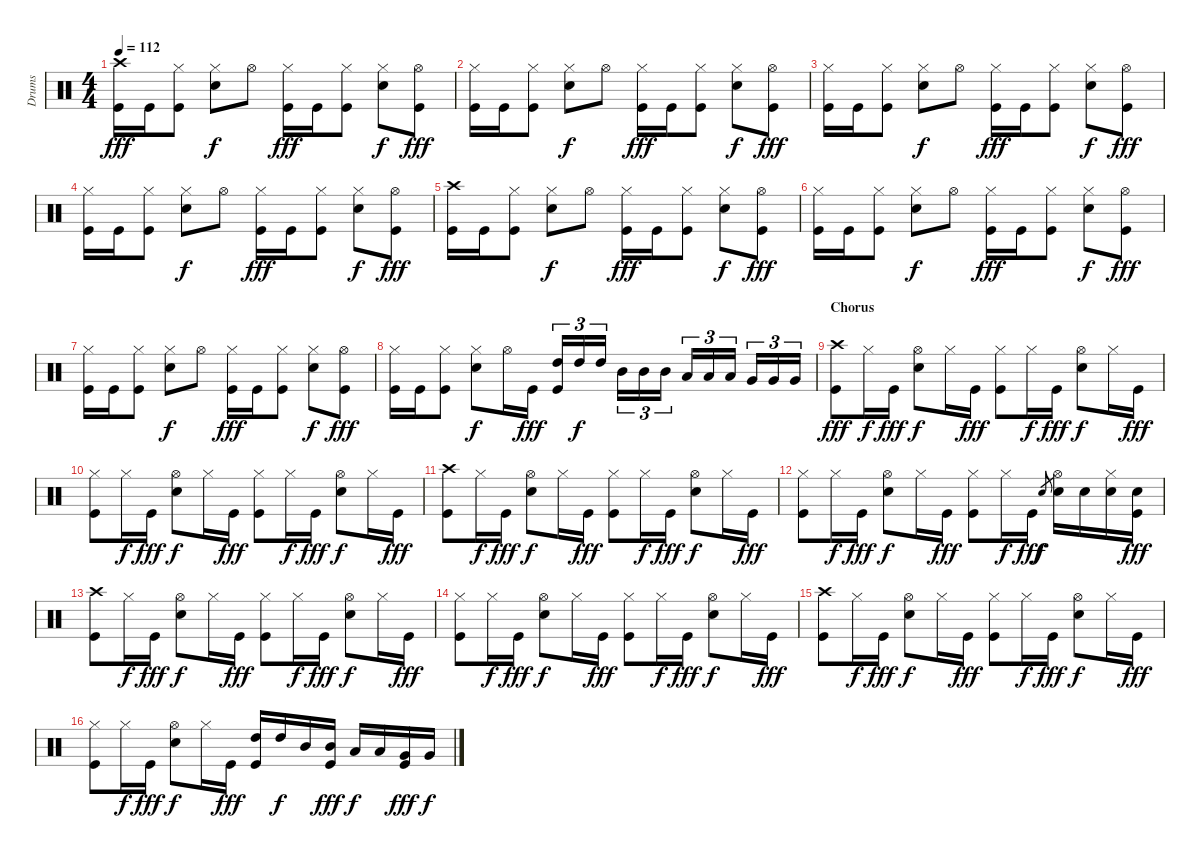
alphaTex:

\track ("Drums" "Drums") {instrument percussion}
\staff {score}
\articulation defaults
\ts (4 4)
\tempo 112
\clef neutral
\ks c
("Crash high (hit)" "Kick (hit)").16{dy fff} "Kick (hit)".16 ("Hi-Hat (closed)" "Kick (hit)").8 ("Hi-Hat (closed)" "Snare (hit) 2").8{dy f} "Hi-Hat (open)".8 ("Hi-Hat (closed)" "Kick (hit)").16{dy fff} "Kick (hit)".16 ("Hi-Hat (closed)" "Kick (hit)").8 ("Hi-Hat (closed)" "Snare (hit) 2").8{dy f} ("Hi-Hat (open)" "Kick (hit)").8{dy fff} |
("Hi-Hat (closed)" "Kick (hit)").16 "Kick (hit)".16 ("Hi-Hat (closed)" "Kick (hit)").8 ("Hi-Hat (closed)" "Snare (hit) 2").8{dy f} "Hi-Hat (open)".8 ("Hi-Hat (closed)" "Kick (hit)").16{dy fff} "Kick (hit)".16 ("Hi-Hat (closed)" "Kick (hit)").8 ("Hi-Hat (closed)" "Snare (hit) 2").8{dy f} ("Hi-Hat (open)" "Kick (hit)").8{dy fff} |
("Hi-Hat (closed)" "Kick (hit)").16 "Kick (hit)".16 ("Hi-Hat (closed)" "Kick (hit)").8 ("Hi-Hat (closed)" "Snare (hit) 2").8{dy f} "Hi-Hat (open)".8 ("Hi-Hat (closed)" "Kick (hit)").16{dy fff} "Kick (hit)".16 ("Hi-Hat (closed)" "Kick (hit)").8 ("Hi-Hat (closed)" "Snare (hit) 2").8{dy f} ("Hi-Hat (open)" "Kick (hit)").8{dy fff} |
("Hi-Hat (closed)" "Kick (hit)").16 "Kick (hit)".16 ("Hi-Hat (closed)" "Kick (hit)").8 ("Hi-Hat (closed)" "Snare (hit) 2").8{dy f} "Hi-Hat (open)".8 ("Hi-Hat (closed)" "Kick (hit)").16{dy fff} "Kick (hit)".16 ("Hi-Hat (closed)" "Kick (hit)").8 ("Hi-Hat (closed)" "Snare (hit) 2").8{dy f} ("Hi-Hat (open)" "Kick (hit)").8{dy fff} |
("Crash high (hit)" "Kick (hit)").16 "Kick (hit)".16 ("Hi-Hat (closed)" "Kick (hit)").8 ("Hi-Hat (closed)" "Snare (hit) 2").8{dy f} "Hi-Hat (open)".8 ("Hi-Hat (closed)" "Kick (hit)").16{dy fff} "Kick (hit)".16 ("Hi-Hat (closed)" "Kick (hit)").8 ("Hi-Hat (closed)" "Snare (hit) 2").8{dy f} ("Hi-Hat (open)" "Kick (hit)").8{dy fff} |
("Hi-Hat (closed)" "Kick (hit)").16 "Kick (hit)".16 ("Hi-Hat (closed)" "Kick (hit)").8 ("Hi-Hat (closed)" "Snare (hit) 2").8{dy f} "Hi-Hat (open)".8 ("Hi-Hat (closed)" "Kick (hit)").16{dy fff} "Kick (hit)".16 ("Hi-Hat (closed)" "Kick (hit)").8 ("Hi-Hat (closed)" "Snare (hit) 2").8{dy f} ("Hi-Hat (open)" "Kick (hit)").8{dy fff} |
("Hi-Hat (closed)" "Kick (hit)").16 "Kick (hit)".16 ("Hi-Hat (closed)" "Kick (hit)").8 ("Hi-Hat (closed)" "Snare (hit) 2").8{dy f} "Hi-Hat (open)".8 ("Hi-Hat (closed)" "Kick (hit)").16{dy fff} "Kick (hit)".16 ("Hi-Hat (closed)" "Kick (hit)").8 ("Hi-Hat (closed)" "Snare (hit) 2").8{dy f} ("Hi-Hat (open)" "Kick (hit)").8{dy fff} |
("Hi-Hat (closed)" "Kick (hit)").16 "Kick (hit)".16 ("Hi-Hat (closed)" "Kick (hit)").8 ("Hi-Hat (closed)" "Snare (hit) 2").8{dy f} "Hi-Hat (open)".16 "Kick (hit)".16{dy fff} ("High Tom (hit)" "Kick (hit)").16{tu (3 2)} "High Tom (hit)".16{tu (3 2) dy f} "High Tom (hit)".16{tu (3 2)} "Mid Tom (hit)".16{tu (3 2)} "Mid Tom (hit)".16{tu (3 2)} "Mid Tom (hit)".16{tu (3 2)} "Low Tom (hit)".16{tu (3 2)} "Low Tom (hit)".16{tu (3 2)} "Low Tom (hit)".16{tu (3 2)} "Very Low Tom (hit)".16{tu (3 2)} "Very Low Tom (hit)".16{tu (3 2)} "Very Low Tom (hit)".16{tu (3 2)} |
\section ("" "Chorus")
("Crash high (hit)" "Kick (hit)").8{dy fff} "Hi-Hat (closed)".16{dy f} "Kick (hit)".16{dy fff} ("Hi-Hat (open)" "Snare (hit) 2").8{dy f} "Hi-Hat (closed)".16 "Kick (hit)".16{dy fff} ("Hi-Hat (closed)" "Kick (hit)").8 "Hi-Hat (closed)".16{dy f} "Kick (hit)".16{dy fff} ("Hi-Hat (open)" "Snare (hit) 2").8{dy f} "Hi-Hat (closed)".16 "Kick (hit)".16{dy fff} |
("Hi-Hat (closed)" "Kick (hit)").8 "Hi-Hat (closed)".16{dy f} "Kick (hit)".16{dy fff} ("Hi-Hat (open)" "Snare (hit) 2").8{dy f} "Hi-Hat (closed)".16 "Kick (hit)".16{dy fff} ("Hi-Hat (closed)" "Kick (hit)").8 "Hi-Hat (closed)".16{dy f} "Kick (hit)".16{dy fff} ("Hi-Hat (open)" "Snare (hit) 2").8{dy f} "Hi-Hat (closed)".16 "Kick (hit)".16{dy fff} |
("Crash high (hit)" "Kick (hit)").8 "Hi-Hat (closed)".16{dy f} "Kick (hit)".16{dy fff} ("Hi-Hat (open)" "Snare (hit) 2").8{dy f} "Hi-Hat (closed)".16 "Kick (hit)".16{dy fff} ("Hi-Hat (closed)" "Kick (hit)").8 "Hi-Hat (closed)".16{dy f} "Kick (hit)".16{dy fff} ("Hi-Hat (open)" "Snare (hit) 2").8{dy f} "Hi-Hat (closed)".16 "Kick (hit)".16{dy fff} |
("Hi-Hat (closed)" "Kick (hit)").8 "Hi-Hat (closed)".16{dy f} "Kick (hit)".16{dy fff} ("Hi-Hat (open)" "Snare (hit) 2").8{dy f} "Hi-Hat (closed)".16 "Kick (hit)".16{dy fff} ("Hi-Hat (closed)" "Kick (hit)").8 "Hi-Hat (closed)".16{dy f} "Kick (hit)".16{dy fff} "Snare (hit) 2".8{gr dy f} ("Hi-Hat (open)" "Snare (hit) 2").16 "Snare (hit) 2".16 ("Hi-Hat (closed)" "Snare (hit) 2").16 ("Snare (hit) 2" "Kick (hit)").16{dy fff} |
("Crash high (hit)" "Kick (hit)").8 "Hi-Hat (closed)".16{dy f} "Kick (hit)".16{dy fff} ("Hi-Hat (open)" "Snare (hit) 2").8{dy f} "Hi-Hat (closed)".16 "Kick (hit)".16{dy fff} ("Hi-Hat (closed)" "Kick (hit)").8 "Hi-Hat (closed)".16{dy f} "Kick (hit)".16{dy fff} ("Hi-Hat (open)" "Snare (hit) 2").8{dy f} "Hi-Hat (closed)".16 "Kick (hit)".16{dy fff} |
("Hi-Hat (closed)" "Kick (hit)").8 "Hi-Hat (closed)".16{dy f} "Kick (hit)".16{dy fff} ("Hi-Hat (open)" "Snare (hit) 2").8{dy f} "Hi-Hat (closed)".16 "Kick (hit)".16{dy fff} ("Hi-Hat (closed)" "Kick (hit)").8 "Hi-Hat (closed)".16{dy f} "Kick (hit)".16{dy fff} ("Hi-Hat (open)" "Snare (hit) 2").8{dy f} "Hi-Hat (closed)".16 "Kick (hit)".16{dy fff} |
("Crash high (hit)" "Kick (hit)").8 "Hi-Hat (closed)".16{dy f} "Kick (hit)".16{dy fff} ("Hi-Hat (open)" "Snare (hit) 2").8{dy f} "Hi-Hat (closed)".16 "Kick (hit)".16{dy fff} ("Hi-Hat (closed)" "Kick (hit)").8 "Hi-Hat (closed)".16{dy f} "Kick (hit)".16{dy fff} ("Hi-Hat (open)" "Snare (hit) 2").8{dy f} "Hi-Hat (closed)".16 "Kick (hit)".16{dy fff} |
("Hi-Hat (closed)" "Kick (hit)").8 "Hi-Hat (closed)".16{dy f} "Kick (hit)".16{dy fff} ("Hi-Hat (open)" "Snare (hit) 2").8{dy f} "Hi-Hat (closed)".16 "Kick (hit)".16{dy fff} ("High Tom (hit)" "Kick (hit)").16 "High Tom (hit)".16{dy f} "Mid Tom (hit)".16 ("Mid Tom (hit)" "Kick (hit)").16{dy fff} "Low Tom (hit)".16{dy f} "Low Tom (hit)".16 ("Very Low Tom (hit)" "Kick (hit)").16{dy fff} "Very Low Tom (hit)".16{dy f}
